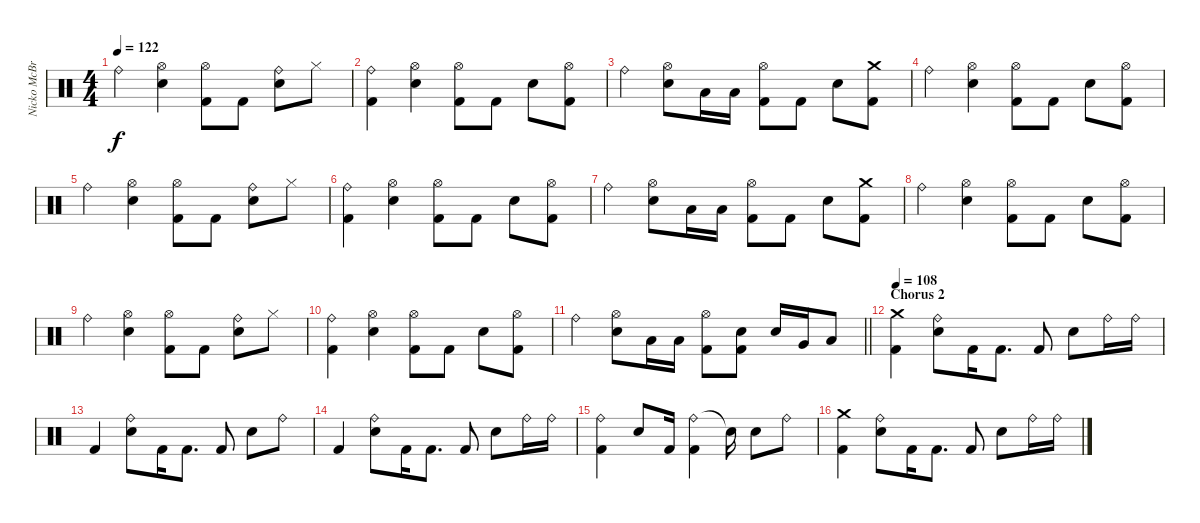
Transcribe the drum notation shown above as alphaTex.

\track ("Nicko McBrain" "Nicko McBr") {instrument percussion}
\staff {score}
\articulation defaults
\ts (4 4)
\tempo 122
\clef neutral
\ks c "Ride (bell)".4{dy f}
("Hi-Hat (open)" "Electric Snare (hit)").4 ("Hi-Hat (open)" "Kick (hit) 2").8 "Kick (hit) 2".8 ("Ride (bell)" "Electric Snare (hit)").8 "Hi-Hat (closed)".8 |
("Ride (bell)" "Kick (hit) 2").4 ("Hi-Hat (open)" "Electric Snare (hit)").4 ("Hi-Hat (open)" "Kick (hit) 2").8 "Kick (hit) 2".8 "Electric Snare (hit)".8 ("Hi-Hat (open)" "Kick (hit) 2").8 |
"Ride (bell)".4 ("Hi-Hat (open)" "Electric Snare (hit)").8 "Low Tom (hit)".16 "Low Tom (hit)".16 ("Hi-Hat (open)" "Kick (hit) 2").8 "Kick (hit) 2".8 "Electric Snare (hit)".8 ("Crash medium (hit)" "Kick (hit) 2").8 |
"Ride (bell)".4 ("Hi-Hat (open)" "Electric Snare (hit)").4 ("Hi-Hat (open)" "Kick (hit) 2").8 "Kick (hit) 2".8 "Electric Snare (hit)".8 ("Hi-Hat (open)" "Kick (hit) 2").8 |
"Ride (bell)".4 ("Hi-Hat (open)" "Electric Snare (hit)").4 ("Hi-Hat (open)" "Kick (hit) 2").8 "Kick (hit) 2".8 ("Ride (bell)" "Electric Snare (hit)").8 "Hi-Hat (closed)".8 |
("Ride (bell)" "Kick (hit) 2").4 ("Hi-Hat (open)" "Electric Snare (hit)").4 ("Hi-Hat (open)" "Kick (hit) 2").8 "Kick (hit) 2".8 "Electric Snare (hit)".8 ("Hi-Hat (open)" "Kick (hit) 2").8 |
"Ride (bell)".4 ("Hi-Hat (open)" "Electric Snare (hit)").8 "Low Tom (hit)".16 "Low Tom (hit)".16 ("Hi-Hat (open)" "Kick (hit) 2").8 "Kick (hit) 2".8 "Electric Snare (hit)".8 ("Crash medium (hit)" "Kick (hit) 2").8 |
"Ride (bell)".4 ("Hi-Hat (open)" "Electric Snare (hit)").4 ("Hi-Hat (open)" "Kick (hit) 2").8 "Kick (hit) 2".8 "Electric Snare (hit)".8 ("Hi-Hat (open)" "Kick (hit) 2").8 |
"Ride (bell)".4 ("Hi-Hat (open)" "Electric Snare (hit)").4 ("Hi-Hat (open)" "Kick (hit) 2").8 "Kick (hit) 2".8 ("Ride (bell)" "Electric Snare (hit)").8 "Hi-Hat (closed)".8 |
("Ride (bell)" "Kick (hit) 2").4 ("Hi-Hat (open)" "Electric Snare (hit)").4 ("Hi-Hat (open)" "Kick (hit) 2").8 "Kick (hit) 2".8 "Electric Snare (hit)".8 ("Hi-Hat (open)" "Kick (hit) 2").8 |
\barLineRight lightlight "Ride (bell)".4
("Hi-Hat (open)" "Electric Snare (hit)").8 "Low Tom (hit)".16 "Low Tom (hit)".16 ("Hi-Hat (open)" "Kick (hit) 2").8 ("Electric Snare (hit)" "Kick (hit) 2").8 "Electric Snare (hit)".16 "Very Low Tom (hit)".16 "Low Floor Tom (hit)".8 |
\section ("" "Chorus 2")
\tempo 108
("Crash medium (hit)" "Kick (hit) 2").4 ("Ride (bell)" "Electric Snare (hit)").8 "Kick (hit) 2".16 "Kick (hit) 2".8{d} "Kick (hit) 2".8 "Electric Snare (hit)".8 "Ride (bell)".16 "Ride (bell)".16 |
"Kick (hit) 2".4 ("Ride (bell)" "Electric Snare (hit)").8 "Kick (hit) 2".16 "Kick (hit) 2".8{d} "Kick (hit) 2".8 "Electric Snare (hit)".8 "Ride (bell)".8 |
"Kick (hit) 2".4 ("Ride (bell)" "Electric Snare (hit)").8 "Kick (hit) 2".16 "Kick (hit) 2".8{d} "Kick (hit) 2".8 "Electric Snare (hit)".8 "Ride (bell)".16 "Ride (bell)".16 |
("Ride (bell)" "Kick (hit) 2").4 "Electric Snare (hit)".8 "Kick (hit) 2".16 ("Ride (bell)" "Kick (hit) 2").4 "Snare (hit)"{t}.16 "Electric Snare (hit)".8 "Ride (bell)".8 |
("Crash medium (hit)" "Kick (hit) 2").4 ("Ride (bell)" "Electric Snare (hit)").8 "Kick (hit) 2".16 "Kick (hit) 2".8{d} "Kick (hit) 2".8 "Electric Snare (hit)".8 "Ride (bell)".16 "Ride (bell)".16
